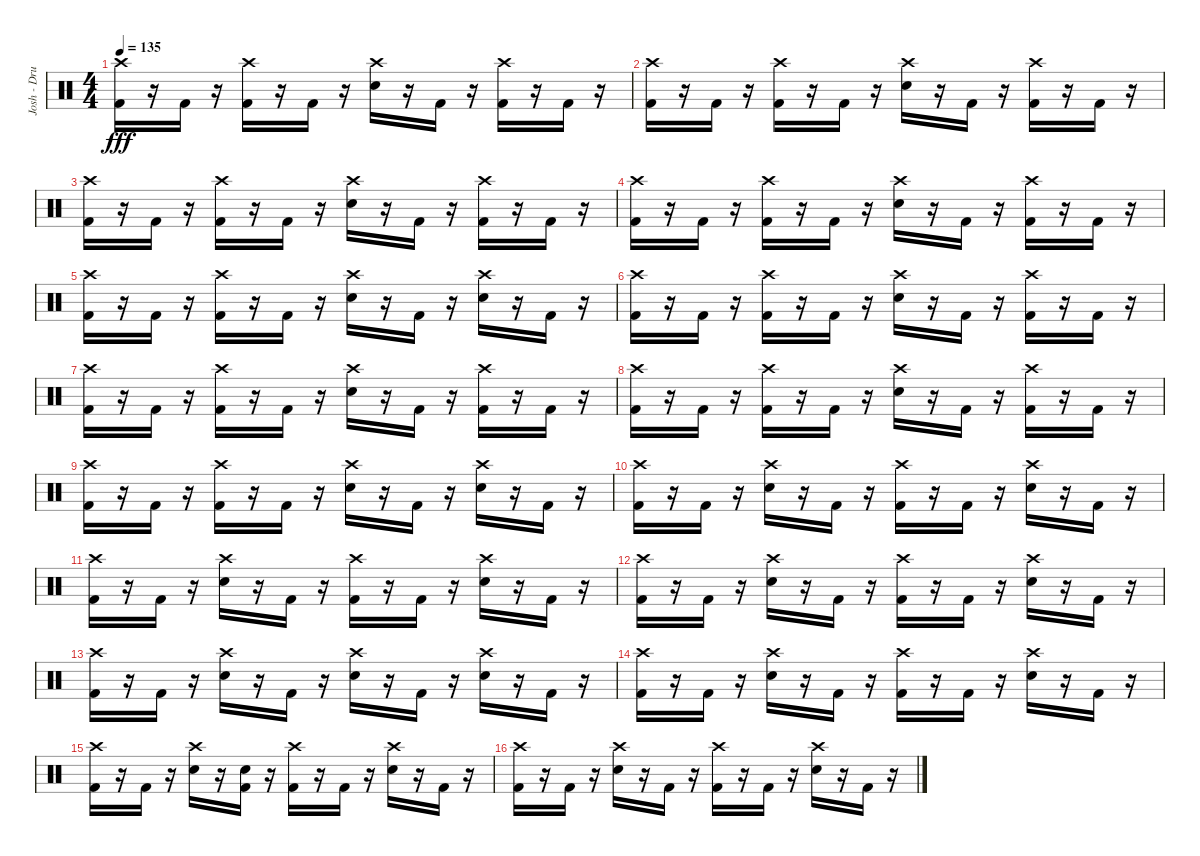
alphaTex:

\track ("Josh - Drums" "Josh - Dru") {instrument percussion}
\staff {score}
\articulation defaults
\ts (4 4)
\tempo 135
\clef neutral
\ks c
("Crash high (hit)" "Kick (hit) 2").16{dy fff} r.16 "Kick (hit) 2".16 r.16 ("Crash high (hit)" "Kick (hit) 2").16 r.16 "Kick (hit) 2".16 r.16 ("Crash high (hit)" "Electric Snare (hit)").16 r.16 "Kick (hit) 2".16 r.16 ("Crash high (hit)" "Kick (hit) 2").16 r.16 "Kick (hit) 2".16 r.16 |
("Crash high (hit)" "Kick (hit) 2").16 r.16 "Kick (hit) 2".16 r.16 ("Crash high (hit)" "Kick (hit) 2").16 r.16 "Kick (hit) 2".16 r.16 ("Crash high (hit)" "Electric Snare (hit)").16 r.16 "Kick (hit) 2".16 r.16 ("Crash high (hit)" "Kick (hit) 2").16 r.16 "Kick (hit) 2".16 r.16 |
("Crash high (hit)" "Kick (hit) 2").16 r.16 "Kick (hit) 2".16 r.16 ("Crash high (hit)" "Kick (hit) 2").16 r.16 "Kick (hit) 2".16 r.16 ("Crash high (hit)" "Electric Snare (hit)").16 r.16 "Kick (hit) 2".16 r.16 ("Crash high (hit)" "Kick (hit) 2").16 r.16 "Kick (hit) 2".16 r.16 |
("Crash high (hit)" "Kick (hit) 2").16 r.16 "Kick (hit) 2".16 r.16 ("Crash high (hit)" "Kick (hit) 2").16 r.16 "Kick (hit) 2".16 r.16 ("Crash high (hit)" "Electric Snare (hit)").16 r.16 "Kick (hit) 2".16 r.16 ("Crash high (hit)" "Kick (hit) 2").16 r.16 "Kick (hit) 2".16 r.16 |
("Crash high (hit)" "Kick (hit) 2").16 r.16 "Kick (hit) 2".16 r.16 ("Crash high (hit)" "Kick (hit) 2").16 r.16 "Kick (hit) 2".16 r.16 ("Crash high (hit)" "Electric Snare (hit)").16 r.16 "Kick (hit) 2".16 r.16 ("Crash high (hit)" "Electric Snare (hit)").16 r.16 "Kick (hit) 2".16 r.16 |
("Crash high (hit)" "Kick (hit) 2").16 r.16 "Kick (hit) 2".16 r.16 ("Crash high (hit)" "Kick (hit) 2").16 r.16 "Kick (hit) 2".16 r.16 ("Crash high (hit)" "Electric Snare (hit)").16 r.16 "Kick (hit) 2".16 r.16 ("Crash high (hit)" "Kick (hit) 2").16 r.16 "Kick (hit) 2".16 r.16 |
("Crash high (hit)" "Kick (hit) 2").16 r.16 "Kick (hit) 2".16 r.16 ("Crash high (hit)" "Kick (hit) 2").16 r.16 "Kick (hit) 2".16 r.16 ("Crash high (hit)" "Electric Snare (hit)").16 r.16 "Kick (hit) 2".16 r.16 ("Crash high (hit)" "Kick (hit) 2").16 r.16 "Kick (hit) 2".16 r.16 |
("Crash high (hit)" "Kick (hit) 2").16 r.16 "Kick (hit) 2".16 r.16 ("Crash high (hit)" "Kick (hit) 2").16 r.16 "Kick (hit) 2".16 r.16 ("Crash high (hit)" "Electric Snare (hit)").16 r.16 "Kick (hit) 2".16 r.16 ("Crash high (hit)" "Kick (hit) 2").16 r.16 "Kick (hit) 2".16 r.16 |
("Crash high (hit)" "Kick (hit) 2").16 r.16 "Kick (hit) 2".16 r.16 ("Crash high (hit)" "Kick (hit) 2").16 r.16 "Kick (hit) 2".16 r.16 ("Crash high (hit)" "Electric Snare (hit)").16 r.16 "Kick (hit) 2".16 r.16 ("Crash high (hit)" "Electric Snare (hit)").16 r.16 "Kick (hit) 2".16 r.16 |
\section ("" "")
("Crash high (hit)" "Kick (hit) 2").16 r.16 "Kick (hit) 2".16 r.16 ("Crash high (hit)" "Electric Snare (hit)").16 r.16 "Kick (hit) 2".16 r.16 ("Crash high (hit)" "Kick (hit) 2").16 r.16 "Kick (hit) 2".16 r.16 ("Crash high (hit)" "Electric Snare (hit)").16 r.16 "Kick (hit) 2".16 r.16 |
("Crash high (hit)" "Kick (hit) 2").16 r.16 "Kick (hit) 2".16 r.16 ("Crash high (hit)" "Electric Snare (hit)").16 r.16 "Kick (hit) 2".16 r.16 ("Crash high (hit)" "Kick (hit) 2").16 r.16 "Kick (hit) 2".16 r.16 ("Crash high (hit)" "Electric Snare (hit)").16 r.16 "Kick (hit) 2".16 r.16 |
("Crash high (hit)" "Kick (hit) 2").16 r.16 "Kick (hit) 2".16 r.16 ("Crash high (hit)" "Electric Snare (hit)").16 r.16 "Kick (hit) 2".16 r.16 ("Crash high (hit)" "Kick (hit) 2").16 r.16 "Kick (hit) 2".16 r.16 ("Crash high (hit)" "Electric Snare (hit)").16 r.16 "Kick (hit) 2".16 r.16 |
("Crash high (hit)" "Kick (hit) 2").16 r.16 "Kick (hit) 2".16 r.16 ("Crash high (hit)" "Electric Snare (hit)").16 r.16 "Kick (hit) 2".16 r.16 ("Crash high (hit)" "Electric Snare (hit)").16 r.16 "Kick (hit) 2".16 r.16 ("Crash high (hit)" "Electric Snare (hit)").16 r.16 "Kick (hit) 2".16 r.16 |
("Crash high (hit)" "Kick (hit) 2").16 r.16 "Kick (hit) 2".16 r.16 ("Crash high (hit)" "Electric Snare (hit)").16 r.16 "Kick (hit) 2".16 r.16 ("Crash high (hit)" "Kick (hit) 2").16 r.16 "Kick (hit) 2".16 r.16 ("Crash high (hit)" "Electric Snare (hit)").16 r.16 "Kick (hit) 2".16 r.16 |
("Crash high (hit)" "Kick (hit) 2").16 r.16 "Kick (hit) 2".16 r.16 ("Crash high (hit)" "Electric Snare (hit)").16 r.16 ("Electric Snare (hit)" "Kick (hit) 2").16 r.16 ("Crash high (hit)" "Kick (hit) 2").16 r.16 "Kick (hit) 2".16 r.16 ("Crash high (hit)" "Electric Snare (hit)").16 r.16 "Kick (hit) 2".16 r.16 |
("Crash high (hit)" "Kick (hit) 2").16 r.16 "Kick (hit) 2".16 r.16 ("Crash high (hit)" "Electric Snare (hit)").16 r.16 "Kick (hit) 2".16 r.16 ("Crash high (hit)" "Kick (hit) 2").16 r.16 "Kick (hit) 2".16 r.16 ("Crash high (hit)" "Electric Snare (hit)").16 r.16 "Kick (hit) 2".16 r.16
